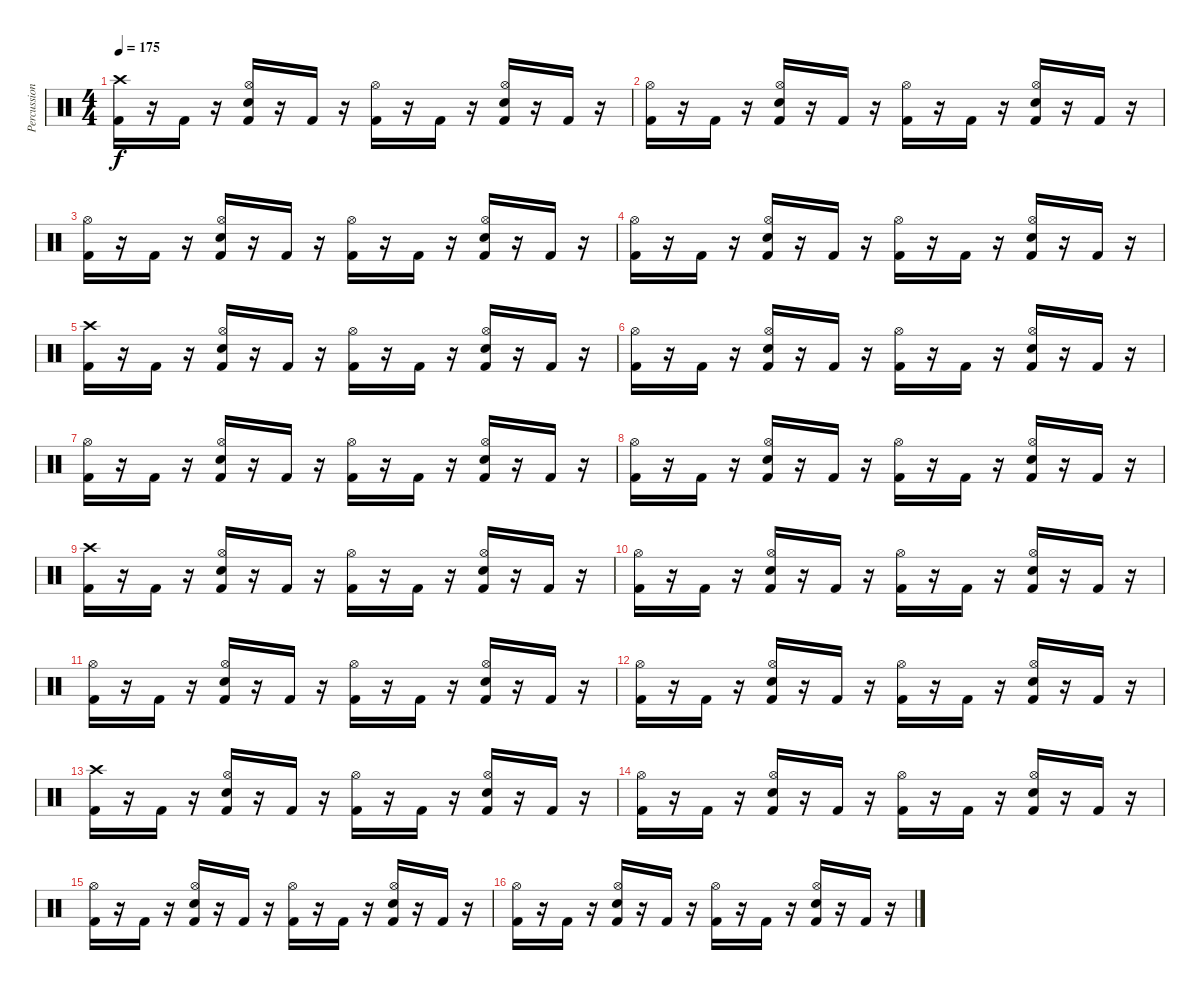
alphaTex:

\track ("Percussion" "Percussion") {instrument percussion}
\staff {score}
\articulation defaults
\ts (4 4)
\tempo 175
\clef neutral
\ks c
("Crash high (hit)" "Kick (hit) 2").16{dy f} r.16 "Kick (hit) 2".16 r.16 ("Hi-Hat (open)" "Electric Snare (hit)" "Kick (hit) 2").16 r.16 "Kick (hit) 2".16 r.16 ("Hi-Hat (open)" "Kick (hit) 2").16 r.16 "Kick (hit) 2".16 r.16 ("Hi-Hat (open)" "Electric Snare (hit)" "Kick (hit) 2").16 r.16 "Kick (hit) 2".16 r.16 |
("Hi-Hat (open)" "Kick (hit) 2").16 r.16 "Kick (hit) 2".16 r.16 ("Hi-Hat (open)" "Electric Snare (hit)" "Kick (hit) 2").16 r.16 "Kick (hit) 2".16 r.16 ("Hi-Hat (open)" "Kick (hit) 2").16 r.16 "Kick (hit) 2".16 r.16 ("Hi-Hat (open)" "Electric Snare (hit)" "Kick (hit) 2").16 r.16 "Kick (hit) 2".16 r.16 |
("Hi-Hat (open)" "Kick (hit) 2").16 r.16 "Kick (hit) 2".16 r.16 ("Hi-Hat (open)" "Electric Snare (hit)" "Kick (hit) 2").16 r.16 "Kick (hit) 2".16 r.16 ("Hi-Hat (open)" "Kick (hit) 2").16 r.16 "Kick (hit) 2".16 r.16 ("Hi-Hat (open)" "Electric Snare (hit)" "Kick (hit) 2").16 r.16 "Kick (hit) 2".16 r.16 |
("Hi-Hat (open)" "Kick (hit) 2").16 r.16 "Kick (hit) 2".16 r.16 ("Hi-Hat (open)" "Electric Snare (hit)" "Kick (hit) 2").16 r.16 "Kick (hit) 2".16 r.16 ("Hi-Hat (open)" "Kick (hit) 2").16 r.16 "Kick (hit) 2".16 r.16 ("Hi-Hat (open)" "Electric Snare (hit)" "Kick (hit) 2").16 r.16 "Kick (hit) 2".16 r.16 |
("Crash high (hit)" "Kick (hit) 2").16 r.16 "Kick (hit) 2".16 r.16 ("Hi-Hat (open)" "Electric Snare (hit)" "Kick (hit) 2").16 r.16 "Kick (hit) 2".16 r.16 ("Hi-Hat (open)" "Kick (hit) 2").16 r.16 "Kick (hit) 2".16 r.16 ("Hi-Hat (open)" "Electric Snare (hit)" "Kick (hit) 2").16 r.16 "Kick (hit) 2".16 r.16 |
("Hi-Hat (open)" "Kick (hit) 2").16 r.16 "Kick (hit) 2".16 r.16 ("Hi-Hat (open)" "Electric Snare (hit)" "Kick (hit) 2").16 r.16 "Kick (hit) 2".16 r.16 ("Hi-Hat (open)" "Kick (hit) 2").16 r.16 "Kick (hit) 2".16 r.16 ("Hi-Hat (open)" "Electric Snare (hit)" "Kick (hit) 2").16 r.16 "Kick (hit) 2".16 r.16 |
("Hi-Hat (open)" "Kick (hit) 2").16 r.16 "Kick (hit) 2".16 r.16 ("Hi-Hat (open)" "Electric Snare (hit)" "Kick (hit) 2").16 r.16 "Kick (hit) 2".16 r.16 ("Hi-Hat (open)" "Kick (hit) 2").16 r.16 "Kick (hit) 2".16 r.16 ("Hi-Hat (open)" "Electric Snare (hit)" "Kick (hit) 2").16 r.16 "Kick (hit) 2".16 r.16 |
("Hi-Hat (open)" "Kick (hit) 2").16 r.16 "Kick (hit) 2".16 r.16 ("Hi-Hat (open)" "Electric Snare (hit)" "Kick (hit) 2").16 r.16 "Kick (hit) 2".16 r.16 ("Hi-Hat (open)" "Kick (hit) 2").16 r.16 "Kick (hit) 2".16 r.16 ("Hi-Hat (open)" "Electric Snare (hit)" "Kick (hit) 2").16 r.16 "Kick (hit) 2".16 r.16 |
("Crash high (hit)" "Kick (hit) 2").16 r.16 "Kick (hit) 2".16 r.16 ("Hi-Hat (open)" "Electric Snare (hit)" "Kick (hit) 2").16 r.16 "Kick (hit) 2".16 r.16 ("Hi-Hat (open)" "Kick (hit) 2").16 r.16 "Kick (hit) 2".16 r.16 ("Hi-Hat (open)" "Electric Snare (hit)" "Kick (hit) 2").16 r.16 "Kick (hit) 2".16 r.16 |
("Hi-Hat (open)" "Kick (hit) 2").16 r.16 "Kick (hit) 2".16 r.16 ("Hi-Hat (open)" "Electric Snare (hit)" "Kick (hit) 2").16 r.16 "Kick (hit) 2".16 r.16 ("Hi-Hat (open)" "Kick (hit) 2").16 r.16 "Kick (hit) 2".16 r.16 ("Hi-Hat (open)" "Electric Snare (hit)" "Kick (hit) 2").16 r.16 "Kick (hit) 2".16 r.16 |
("Hi-Hat (open)" "Kick (hit) 2").16 r.16 "Kick (hit) 2".16 r.16 ("Hi-Hat (open)" "Electric Snare (hit)" "Kick (hit) 2").16 r.16 "Kick (hit) 2".16 r.16 ("Hi-Hat (open)" "Kick (hit) 2").16 r.16 "Kick (hit) 2".16 r.16 ("Hi-Hat (open)" "Electric Snare (hit)" "Kick (hit) 2").16 r.16 "Kick (hit) 2".16 r.16 |
("Hi-Hat (open)" "Kick (hit) 2").16 r.16 "Kick (hit) 2".16 r.16 ("Hi-Hat (open)" "Electric Snare (hit)" "Kick (hit) 2").16 r.16 "Kick (hit) 2".16 r.16 ("Hi-Hat (open)" "Kick (hit) 2").16 r.16 "Kick (hit) 2".16 r.16 ("Hi-Hat (open)" "Electric Snare (hit)" "Kick (hit) 2").16 r.16 "Kick (hit) 2".16 r.16 |
("Crash high (hit)" "Kick (hit) 2").16 r.16 "Kick (hit) 2".16 r.16 ("Hi-Hat (open)" "Electric Snare (hit)" "Kick (hit) 2").16 r.16 "Kick (hit) 2".16 r.16 ("Hi-Hat (open)" "Kick (hit) 2").16 r.16 "Kick (hit) 2".16 r.16 ("Hi-Hat (open)" "Electric Snare (hit)" "Kick (hit) 2").16 r.16 "Kick (hit) 2".16 r.16 |
("Hi-Hat (open)" "Kick (hit) 2").16 r.16 "Kick (hit) 2".16 r.16 ("Hi-Hat (open)" "Electric Snare (hit)" "Kick (hit) 2").16 r.16 "Kick (hit) 2".16 r.16 ("Hi-Hat (open)" "Kick (hit) 2").16 r.16 "Kick (hit) 2".16 r.16 ("Hi-Hat (open)" "Electric Snare (hit)" "Kick (hit) 2").16 r.16 "Kick (hit) 2".16 r.16 |
("Hi-Hat (open)" "Kick (hit) 2").16 r.16 "Kick (hit) 2".16 r.16 ("Hi-Hat (open)" "Electric Snare (hit)" "Kick (hit) 2").16 r.16 "Kick (hit) 2".16 r.16 ("Hi-Hat (open)" "Kick (hit) 2").16 r.16 "Kick (hit) 2".16 r.16 ("Hi-Hat (open)" "Electric Snare (hit)" "Kick (hit) 2").16 r.16 "Kick (hit) 2".16 r.16 |
("Hi-Hat (open)" "Kick (hit) 2").16 r.16 "Kick (hit) 2".16 r.16 ("Hi-Hat (open)" "Electric Snare (hit)" "Kick (hit) 2").16 r.16 "Kick (hit) 2".16 r.16 ("Hi-Hat (open)" "Kick (hit) 2").16 r.16 "Kick (hit) 2".16 r.16 ("Hi-Hat (open)" "Electric Snare (hit)" "Kick (hit) 2").16 r.16 "Kick (hit) 2".16 r.16
